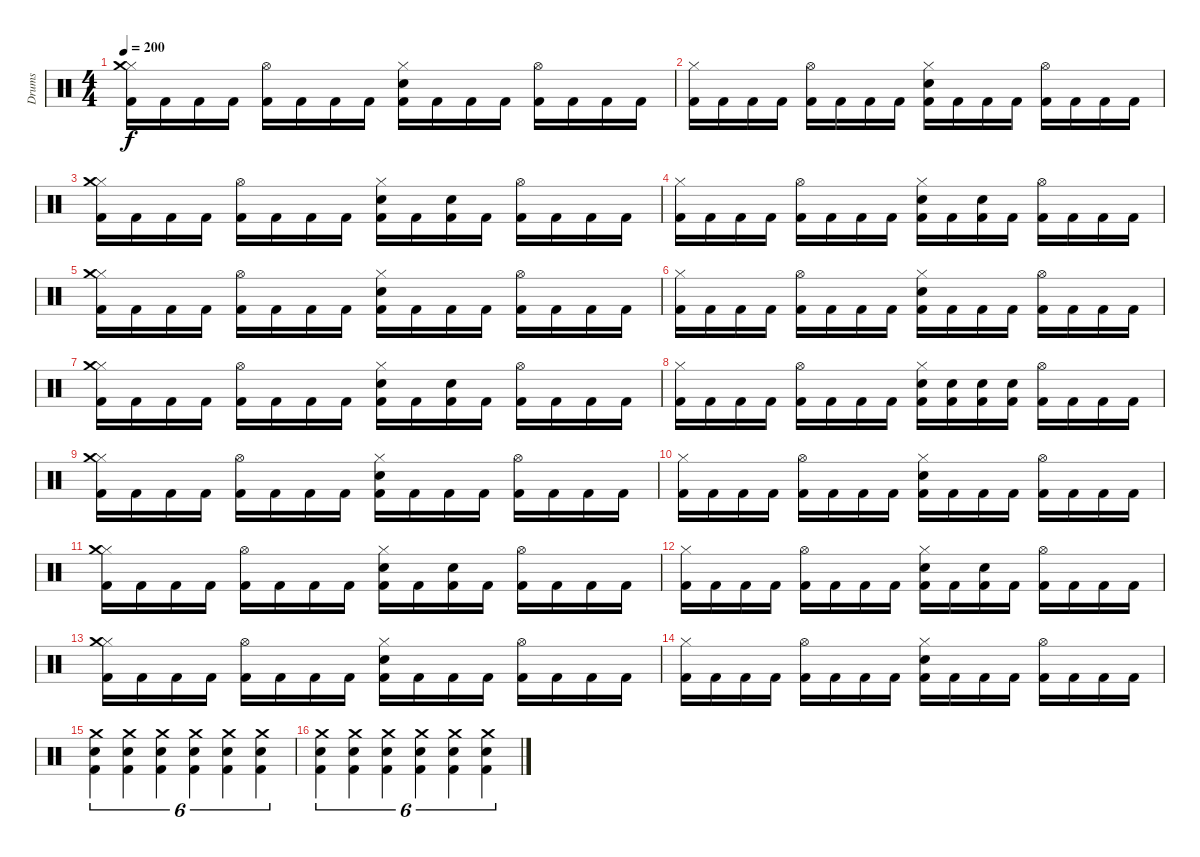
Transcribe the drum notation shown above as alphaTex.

\track ("Drums" "Drums") {instrument percussion}
\staff {score}
\articulation defaults
\ts (4 4)
\tempo 200
\clef neutral
\ks c
("Hi-Hat (closed)" "Crash medium (hit)" "Kick (hit) 2").16{dy f} "Kick (hit) 2".16 "Kick (hit) 2".16 "Kick (hit) 2".16 ("Hi-Hat (open)" "Kick (hit) 2").16 "Kick (hit) 2".16 "Kick (hit) 2".16 "Kick (hit) 2".16 ("Hi-Hat (closed)" "Electric Snare (hit)" "Kick (hit) 2").16 "Kick (hit) 2".16 "Kick (hit) 2".16 "Kick (hit) 2".16 ("Hi-Hat (open)" "Kick (hit) 2").16 "Kick (hit) 2".16 "Kick (hit) 2".16 "Kick (hit) 2".16 |
("Hi-Hat (closed)" "Kick (hit) 2").16 "Kick (hit) 2".16 "Kick (hit) 2".16 "Kick (hit) 2".16 ("Hi-Hat (open)" "Kick (hit) 2").16 "Kick (hit) 2".16 "Kick (hit) 2".16 "Kick (hit) 2".16 ("Hi-Hat (closed)" "Electric Snare (hit)" "Kick (hit) 2").16 "Kick (hit) 2".16 "Kick (hit) 2".16 "Kick (hit) 2".16 ("Hi-Hat (open)" "Kick (hit) 2").16 "Kick (hit) 2".16 "Kick (hit) 2".16 "Kick (hit) 2".16 |
("Hi-Hat (closed)" "Crash medium (hit)" "Kick (hit) 2").16 "Kick (hit) 2".16 "Kick (hit) 2".16 "Kick (hit) 2".16 ("Hi-Hat (open)" "Kick (hit) 2").16 "Kick (hit) 2".16 "Kick (hit) 2".16 "Kick (hit) 2".16 ("Hi-Hat (closed)" "Electric Snare (hit)" "Kick (hit) 2").16 "Kick (hit) 2".16 ("Electric Snare (hit)" "Kick (hit) 2").16 "Kick (hit) 2".16 ("Hi-Hat (open)" "Kick (hit) 2").16 "Kick (hit) 2".16 "Kick (hit) 2".16 "Kick (hit) 2".16 |
("Hi-Hat (closed)" "Kick (hit) 2").16 "Kick (hit) 2".16 "Kick (hit) 2".16 "Kick (hit) 2".16 ("Hi-Hat (open)" "Kick (hit) 2").16 "Kick (hit) 2".16 "Kick (hit) 2".16 "Kick (hit) 2".16 ("Hi-Hat (closed)" "Electric Snare (hit)" "Kick (hit) 2").16 "Kick (hit) 2".16 ("Electric Snare (hit)" "Kick (hit) 2").16 "Kick (hit) 2".16 ("Hi-Hat (open)" "Kick (hit) 2").16 "Kick (hit) 2".16 "Kick (hit) 2".16 "Kick (hit) 2".16 |
("Hi-Hat (closed)" "Crash medium (hit)" "Kick (hit) 2").16 "Kick (hit) 2".16 "Kick (hit) 2".16 "Kick (hit) 2".16 ("Hi-Hat (open)" "Kick (hit) 2").16 "Kick (hit) 2".16 "Kick (hit) 2".16 "Kick (hit) 2".16 ("Hi-Hat (closed)" "Electric Snare (hit)" "Kick (hit) 2").16 "Kick (hit) 2".16 "Kick (hit) 2".16 "Kick (hit) 2".16 ("Hi-Hat (open)" "Kick (hit) 2").16 "Kick (hit) 2".16 "Kick (hit) 2".16 "Kick (hit) 2".16 |
("Hi-Hat (closed)" "Kick (hit) 2").16 "Kick (hit) 2".16 "Kick (hit) 2".16 "Kick (hit) 2".16 ("Hi-Hat (open)" "Kick (hit) 2").16 "Kick (hit) 2".16 "Kick (hit) 2".16 "Kick (hit) 2".16 ("Hi-Hat (closed)" "Electric Snare (hit)" "Kick (hit) 2").16 "Kick (hit) 2".16 "Kick (hit) 2".16 "Kick (hit) 2".16 ("Hi-Hat (open)" "Kick (hit) 2").16 "Kick (hit) 2".16 "Kick (hit) 2".16 "Kick (hit) 2".16 |
("Hi-Hat (closed)" "Crash medium (hit)" "Kick (hit) 2").16 "Kick (hit) 2".16 "Kick (hit) 2".16 "Kick (hit) 2".16 ("Hi-Hat (open)" "Kick (hit) 2").16 "Kick (hit) 2".16 "Kick (hit) 2".16 "Kick (hit) 2".16 ("Hi-Hat (closed)" "Electric Snare (hit)" "Kick (hit) 2").16 "Kick (hit) 2".16 ("Electric Snare (hit)" "Kick (hit) 2").16 "Kick (hit) 2".16 ("Hi-Hat (open)" "Kick (hit) 2").16 "Kick (hit) 2".16 "Kick (hit) 2".16 "Kick (hit) 2".16 |
("Hi-Hat (closed)" "Kick (hit) 2").16 "Kick (hit) 2".16 "Kick (hit) 2".16 "Kick (hit) 2".16 ("Hi-Hat (open)" "Kick (hit) 2").16 "Kick (hit) 2".16 "Kick (hit) 2".16 "Kick (hit) 2".16 ("Hi-Hat (closed)" "Electric Snare (hit)" "Kick (hit) 2").16 ("Electric Snare (hit)" "Kick (hit) 2").16 ("Electric Snare (hit)" "Kick (hit) 2").16 ("Electric Snare (hit)" "Kick (hit) 2").16 ("Hi-Hat (open)" "Kick (hit) 2").16 "Kick (hit) 2".16 "Kick (hit) 2".16 "Kick (hit) 2".16 |
("Hi-Hat (closed)" "Crash medium (hit)" "Kick (hit) 2").16 "Kick (hit) 2".16 "Kick (hit) 2".16 "Kick (hit) 2".16 ("Hi-Hat (open)" "Kick (hit) 2").16 "Kick (hit) 2".16 "Kick (hit) 2".16 "Kick (hit) 2".16 ("Hi-Hat (closed)" "Electric Snare (hit)" "Kick (hit) 2").16 "Kick (hit) 2".16 "Kick (hit) 2".16 "Kick (hit) 2".16 ("Hi-Hat (open)" "Kick (hit) 2").16 "Kick (hit) 2".16 "Kick (hit) 2".16 "Kick (hit) 2".16 |
("Hi-Hat (closed)" "Kick (hit) 2").16 "Kick (hit) 2".16 "Kick (hit) 2".16 "Kick (hit) 2".16 ("Hi-Hat (open)" "Kick (hit) 2").16 "Kick (hit) 2".16 "Kick (hit) 2".16 "Kick (hit) 2".16 ("Hi-Hat (closed)" "Electric Snare (hit)" "Kick (hit) 2").16 "Kick (hit) 2".16 "Kick (hit) 2".16 "Kick (hit) 2".16 ("Hi-Hat (open)" "Kick (hit) 2").16 "Kick (hit) 2".16 "Kick (hit) 2".16 "Kick (hit) 2".16 |
("Hi-Hat (closed)" "Crash medium (hit)" "Kick (hit) 2").16 "Kick (hit) 2".16 "Kick (hit) 2".16 "Kick (hit) 2".16 ("Hi-Hat (open)" "Kick (hit) 2").16 "Kick (hit) 2".16 "Kick (hit) 2".16 "Kick (hit) 2".16 ("Hi-Hat (closed)" "Electric Snare (hit)" "Kick (hit) 2").16 "Kick (hit) 2".16 ("Electric Snare (hit)" "Kick (hit) 2").16 "Kick (hit) 2".16 ("Hi-Hat (open)" "Kick (hit) 2").16 "Kick (hit) 2".16 "Kick (hit) 2".16 "Kick (hit) 2".16 |
("Hi-Hat (closed)" "Kick (hit) 2").16 "Kick (hit) 2".16 "Kick (hit) 2".16 "Kick (hit) 2".16 ("Hi-Hat (open)" "Kick (hit) 2").16 "Kick (hit) 2".16 "Kick (hit) 2".16 "Kick (hit) 2".16 ("Hi-Hat (closed)" "Electric Snare (hit)" "Kick (hit) 2").16 "Kick (hit) 2".16 ("Electric Snare (hit)" "Kick (hit) 2").16 "Kick (hit) 2".16 ("Hi-Hat (open)" "Kick (hit) 2").16 "Kick (hit) 2".16 "Kick (hit) 2".16 "Kick (hit) 2".16 |
("Hi-Hat (closed)" "Crash medium (hit)" "Kick (hit) 2").16 "Kick (hit) 2".16 "Kick (hit) 2".16 "Kick (hit) 2".16 ("Hi-Hat (open)" "Kick (hit) 2").16 "Kick (hit) 2".16 "Kick (hit) 2".16 "Kick (hit) 2".16 ("Hi-Hat (closed)" "Electric Snare (hit)" "Kick (hit) 2").16 "Kick (hit) 2".16 "Kick (hit) 2".16 "Kick (hit) 2".16 ("Hi-Hat (open)" "Kick (hit) 2").16 "Kick (hit) 2".16 "Kick (hit) 2".16 "Kick (hit) 2".16 |
("Hi-Hat (closed)" "Kick (hit) 2").16 "Kick (hit) 2".16 "Kick (hit) 2".16 "Kick (hit) 2".16 ("Hi-Hat (open)" "Kick (hit) 2").16 "Kick (hit) 2".16 "Kick (hit) 2".16 "Kick (hit) 2".16 ("Hi-Hat (closed)" "Electric Snare (hit)" "Kick (hit) 2").16 "Kick (hit) 2".16 "Kick (hit) 2".16 "Kick (hit) 2".16 ("Hi-Hat (open)" "Kick (hit) 2").16 "Kick (hit) 2".16 "Kick (hit) 2".16 "Kick (hit) 2".16 |
("Crash medium (hit)" "Electric Snare (hit)" "Kick (hit) 2").4{tu (6 4)} ("Crash medium (hit)" "Electric Snare (hit)" "Kick (hit) 2").4{tu (6 4)} ("Crash medium (hit)" "Electric Snare (hit)" "Kick (hit) 2").4{tu (6 4)} ("Crash medium (hit)" "Electric Snare (hit)" "Kick (hit) 2").4{tu (6 4)} ("Crash medium (hit)" "Electric Snare (hit)" "Kick (hit) 2").4{tu (6 4)} ("Crash medium (hit)" "Electric Snare (hit)" "Kick (hit) 2").4{tu (6 4)} |
("Crash medium (hit)" "Electric Snare (hit)" "Kick (hit) 2").4{tu (6 4)} ("Crash medium (hit)" "Electric Snare (hit)" "Kick (hit) 2").4{tu (6 4)} ("Crash medium (hit)" "Electric Snare (hit)" "Kick (hit) 2").4{tu (6 4)} ("Crash medium (hit)" "Electric Snare (hit)" "Kick (hit) 2").4{tu (6 4)} ("Crash medium (hit)" "Electric Snare (hit)" "Kick (hit) 2").4{tu (6 4)} ("Crash medium (hit)" "Electric Snare (hit)" "Kick (hit) 2").4{tu (6 4)}
